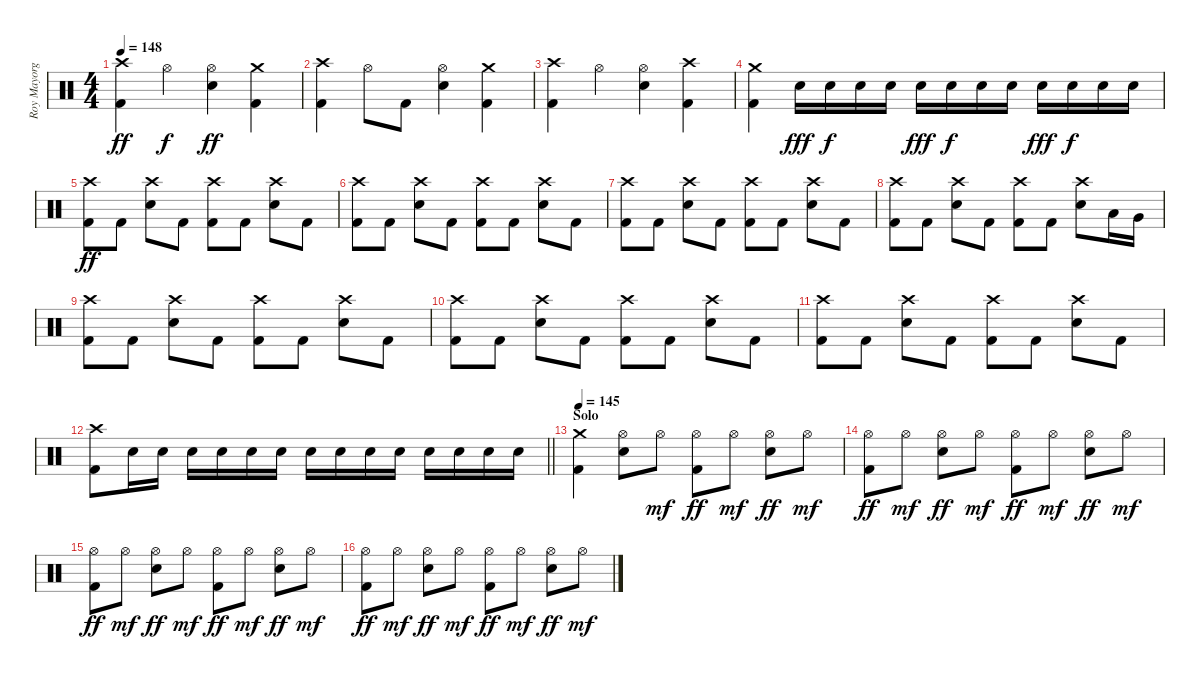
\track ("Roy Mayorga (Drums)" "Roy Mayorg") {instrument percussion}
\staff {score}
\articulation defaults
\ts (4 4)
\tempo 148
\clef neutral
\ks c
("Crash high (hit)" "Kick (hit) 2").4{dy ff} "Hi-Hat (open)".4{dy f} ("Hi-Hat (open)" "Electric Snare (hit)").4{dy ff} ("Crash medium (hit)" "Kick (hit) 2").4 |
("Crash high (hit)" "Kick (hit) 2").4 "Hi-Hat (open)".8 "Kick (hit) 2".8 ("Hi-Hat (open)" "Electric Snare (hit)").4 ("Crash medium (hit)" "Kick (hit) 2").4 |
("Crash high (hit)" "Kick (hit) 2").4 "Hi-Hat (open)".4 ("Hi-Hat (open)" "Electric Snare (hit)").4 ("Crash high (hit)" "Kick (hit) 2").4 |
("Crash medium (hit)" "Kick (hit) 2").4 "Electric Snare (hit)".16{dy fff} "Electric Snare (hit)".16{dy f} "Electric Snare (hit)".16 "Electric Snare (hit)".16 "Electric Snare (hit)".16{dy fff} "Electric Snare (hit)".16{dy f} "Electric Snare (hit)".16 "Electric Snare (hit)".16 "Electric Snare (hit)".16{dy fff} "Electric Snare (hit)".16{dy f} "Electric Snare (hit)".16 "Electric Snare (hit)".16 |
("Crash high (hit)" "Kick (hit) 2").8{dy ff} "Kick (hit) 2".8 ("Crash high (hit)" "Electric Snare (hit)").8 "Kick (hit) 2".8 ("Crash high (hit)" "Kick (hit) 2").8 "Kick (hit) 2".8 ("Crash high (hit)" "Electric Snare (hit)").8 "Kick (hit) 2".8 |
("Crash high (hit)" "Kick (hit) 2").8 "Kick (hit) 2".8 ("Crash high (hit)" "Electric Snare (hit)").8 "Kick (hit) 2".8 ("Crash high (hit)" "Kick (hit) 2").8 "Kick (hit) 2".8 ("Crash high (hit)" "Electric Snare (hit)").8 "Kick (hit) 2".8 |
("Crash high (hit)" "Kick (hit) 2").8 "Kick (hit) 2".8 ("Crash high (hit)" "Electric Snare (hit)").8 "Kick (hit) 2".8 ("Crash high (hit)" "Kick (hit) 2").8 "Kick (hit) 2".8 ("Crash high (hit)" "Electric Snare (hit)").8 "Kick (hit) 2".8 |
("Crash high (hit)" "Kick (hit) 2").8 "Kick (hit) 2".8 ("Crash high (hit)" "Electric Snare (hit)").8 "Kick (hit) 2".8 ("Crash high (hit)" "Kick (hit) 2").8 "Kick (hit) 2".8 ("Crash high (hit)" "Electric Snare (hit)").8 "Low Tom (hit)".16 "Very Low Tom (hit)".16 |
("Crash high (hit)" "Kick (hit) 2").8 "Kick (hit) 2".8 ("Crash high (hit)" "Electric Snare (hit)").8 "Kick (hit) 2".8 ("Crash high (hit)" "Kick (hit) 2").8 "Kick (hit) 2".8 ("Crash high (hit)" "Electric Snare (hit)").8 "Kick (hit) 2".8 |
("Crash high (hit)" "Kick (hit) 2").8 "Kick (hit) 2".8 ("Crash high (hit)" "Electric Snare (hit)").8 "Kick (hit) 2".8 ("Crash high (hit)" "Kick (hit) 2").8 "Kick (hit) 2".8 ("Crash high (hit)" "Electric Snare (hit)").8 "Kick (hit) 2".8 |
("Crash high (hit)" "Kick (hit) 2").8 "Kick (hit) 2".8 ("Crash high (hit)" "Electric Snare (hit)").8 "Kick (hit) 2".8 ("Crash high (hit)" "Kick (hit) 2").8 "Kick (hit) 2".8 ("Crash high (hit)" "Electric Snare (hit)").8 "Kick (hit) 2".8 |
\barLineRight lightlight
("Crash high (hit)" "Kick (hit) 2").8 "Electric Snare (hit)".16 "Electric Snare (hit)".16 "Electric Snare (hit)".16 "Electric Snare (hit)".16 "Electric Snare (hit)".16 "Electric Snare (hit)".16 "Electric Snare (hit)".16 "Electric Snare (hit)".16 "Electric Snare (hit)".16 "Electric Snare (hit)".16 "Electric Snare (hit)".16 "Electric Snare (hit)".16 "Electric Snare (hit)".16 "Electric Snare (hit)".16 |
\section ("" "Solo")
\tempo 145
("Crash medium (hit)" "Kick (hit) 2").4 ("Hi-Hat (open)" "Electric Snare (hit)").8 "Hi-Hat (open)".8{dy mf} ("Hi-Hat (open)" "Kick (hit) 2").8{dy ff} "Hi-Hat (open)".8{dy mf} ("Hi-Hat (open)" "Electric Snare (hit)").8{dy ff} "Hi-Hat (open)".8{dy mf} |
("Hi-Hat (open)" "Kick (hit) 2").8{dy ff} "Hi-Hat (open)".8{dy mf} ("Hi-Hat (open)" "Electric Snare (hit)").8{dy ff} "Hi-Hat (open)".8{dy mf} ("Hi-Hat (open)" "Kick (hit) 2").8{dy ff} "Hi-Hat (open)".8{dy mf} ("Hi-Hat (open)" "Electric Snare (hit)").8{dy ff} "Hi-Hat (open)".8{dy mf} |
("Hi-Hat (open)" "Kick (hit) 2").8{dy ff} "Hi-Hat (open)".8{dy mf} ("Hi-Hat (open)" "Electric Snare (hit)").8{dy ff} "Hi-Hat (open)".8{dy mf} ("Hi-Hat (open)" "Kick (hit) 2").8{dy ff} "Hi-Hat (open)".8{dy mf} ("Hi-Hat (open)" "Electric Snare (hit)").8{dy ff} "Hi-Hat (open)".8{dy mf} |
("Hi-Hat (open)" "Kick (hit) 2").8{dy ff} "Hi-Hat (open)".8{dy mf} ("Hi-Hat (open)" "Electric Snare (hit)").8{dy ff} "Hi-Hat (open)".8{dy mf} ("Hi-Hat (open)" "Kick (hit) 2").8{dy ff} "Hi-Hat (open)".8{dy mf} ("Hi-Hat (open)" "Electric Snare (hit)").8{dy ff} "Hi-Hat (open)".8{dy mf}
